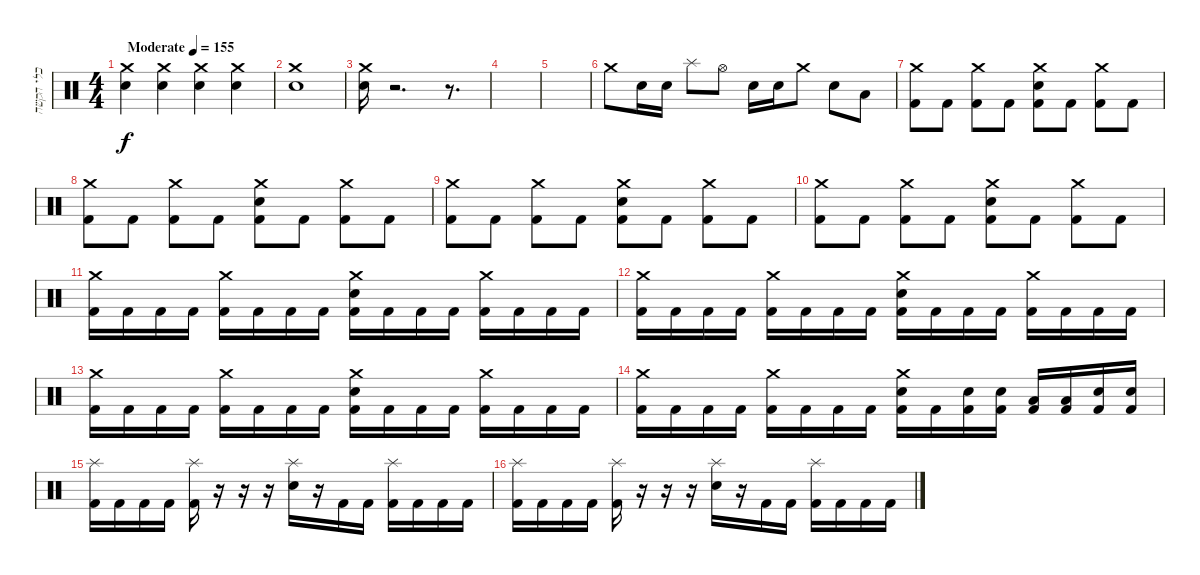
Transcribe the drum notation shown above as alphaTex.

\track ("כלי הקשה" "כלי הקשה") {instrument percussion}
\staff {score}
\articulation defaults
\ts (4 4)
\tempo (155 "Moderate")
\clef neutral
\ks c
("Crash medium (hit)" "Snare (hit) 2").4{dy f} ("Crash medium (hit)" "Snare (hit) 2").4 ("Crash medium (hit)" "Snare (hit) 2").4 ("Crash medium (hit)" "Snare (hit) 2").4 |
("Crash medium (hit)" "Snare (hit) 2").1 |
("Crash medium (hit)" "Snare (hit) 2").16 r.2{d} r.8{d} |
|
|
"Crash medium (hit)".8 "Snare (hit) 2".16 "Snare (hit) 2".16 "Splash (hit)".8 "Hi-Hat (open)".8 "Snare (hit) 2".16 "Snare (hit) 2".16 "Crash medium (hit)".8 "Snare (hit) 2".8 "Low Tom (hit)".8 |
("Crash medium (hit)" "Kick (hit) 2").8 "Kick (hit) 2".8 ("Crash medium (hit)" "Kick (hit) 2").8 "Kick (hit) 2".8 ("Crash medium (hit)" "Snare (hit) 2" "Kick (hit) 2").8 "Kick (hit) 2".8 ("Crash medium (hit)" "Kick (hit) 2").8 "Kick (hit) 2".8 |
("Crash medium (hit)" "Kick (hit) 2").8 "Kick (hit) 2".8 ("Crash medium (hit)" "Kick (hit) 2").8 "Kick (hit) 2".8 ("Crash medium (hit)" "Snare (hit) 2" "Kick (hit) 2").8 "Kick (hit) 2".8 ("Crash medium (hit)" "Kick (hit) 2").8 "Kick (hit) 2".8 |
("Crash medium (hit)" "Kick (hit) 2").8 "Kick (hit) 2".8 ("Crash medium (hit)" "Kick (hit) 2").8 "Kick (hit) 2".8 ("Crash medium (hit)" "Snare (hit) 2" "Kick (hit) 2").8 "Kick (hit) 2".8 ("Crash medium (hit)" "Kick (hit) 2").8 "Kick (hit) 2".8 |
("Crash medium (hit)" "Kick (hit) 2").8 "Kick (hit) 2".8 ("Crash medium (hit)" "Kick (hit) 2").8 "Kick (hit) 2".8 ("Crash medium (hit)" "Snare (hit) 2" "Kick (hit) 2").8 "Kick (hit) 2".8 ("Crash medium (hit)" "Kick (hit) 2").8 "Kick (hit) 2".8 |
("Crash medium (hit)" "Kick (hit) 2").16 "Kick (hit) 2".16 "Kick (hit) 2".16 "Kick (hit) 2".16 ("Crash medium (hit)" "Kick (hit) 2").16 "Kick (hit) 2".16 "Kick (hit) 2".16 "Kick (hit) 2".16 ("Crash medium (hit)" "Snare (hit) 2" "Kick (hit) 2").16 "Kick (hit) 2".16 "Kick (hit) 2".16 "Kick (hit) 2".16 ("Crash medium (hit)" "Kick (hit) 2").16 "Kick (hit) 2".16 "Kick (hit) 2".16 "Kick (hit) 2".16 |
("Crash medium (hit)" "Kick (hit) 2").16 "Kick (hit) 2".16 "Kick (hit) 2".16 "Kick (hit) 2".16 ("Crash medium (hit)" "Kick (hit) 2").16 "Kick (hit) 2".16 "Kick (hit) 2".16 "Kick (hit) 2".16 ("Crash medium (hit)" "Snare (hit) 2" "Kick (hit) 2").16 "Kick (hit) 2".16 "Kick (hit) 2".16 "Kick (hit) 2".16 ("Crash medium (hit)" "Kick (hit) 2").16 "Kick (hit) 2".16 "Kick (hit) 2".16 "Kick (hit) 2".16 |
("Crash medium (hit)" "Kick (hit) 2").16 "Kick (hit) 2".16 "Kick (hit) 2".16 "Kick (hit) 2".16 ("Crash medium (hit)" "Kick (hit) 2").16 "Kick (hit) 2".16 "Kick (hit) 2".16 "Kick (hit) 2".16 ("Crash medium (hit)" "Snare (hit) 2" "Kick (hit) 2").16 "Kick (hit) 2".16 "Kick (hit) 2".16 "Kick (hit) 2".16 ("Crash medium (hit)" "Kick (hit) 2").16 "Kick (hit) 2".16 "Kick (hit) 2".16 "Kick (hit) 2".16 |
("Crash medium (hit)" "Kick (hit) 2").16 "Kick (hit) 2".16 "Kick (hit) 2".16 "Kick (hit) 2".16 ("Crash medium (hit)" "Kick (hit) 2").16 "Kick (hit) 2".16 "Kick (hit) 2".16 "Kick (hit) 2".16 ("Crash medium (hit)" "Snare (hit) 2" "Kick (hit) 2").16 "Kick (hit) 2".16 ("Snare (hit) 2" "Kick (hit) 2").16 ("Snare (hit) 2" "Kick (hit) 2").16 ("Low Tom (hit)" "Kick (hit) 2").16 ("Low Tom (hit)" "Kick (hit) 2").16 ("Snare (hit) 2" "Kick (hit) 2").16 ("Snare (hit) 2" "Kick (hit) 2").16 |
("Splash (hit)" "Kick (hit) 2").16 "Kick (hit) 2".16 "Kick (hit) 2".16 "Kick (hit) 2".16 ("Splash (hit)" "Kick (hit) 2").16 r.16 r.16 r.16 ("Splash (hit)" "Snare (hit) 2").16 r.16 "Kick (hit) 2".16 "Kick (hit) 2".16 ("Splash (hit)" "Kick (hit) 2").16 "Kick (hit) 2".16 "Kick (hit) 2".16 "Kick (hit) 2".16 |
("Splash (hit)" "Kick (hit) 2").16 "Kick (hit) 2".16 "Kick (hit) 2".16 "Kick (hit) 2".16 ("Splash (hit)" "Kick (hit) 2").16 r.16 r.16 r.16 ("Splash (hit)" "Snare (hit) 2").16 r.16 "Kick (hit) 2".16 "Kick (hit) 2".16 ("Splash (hit)" "Kick (hit) 2").16 "Kick (hit) 2".16 "Kick (hit) 2".16 "Kick (hit) 2".16
